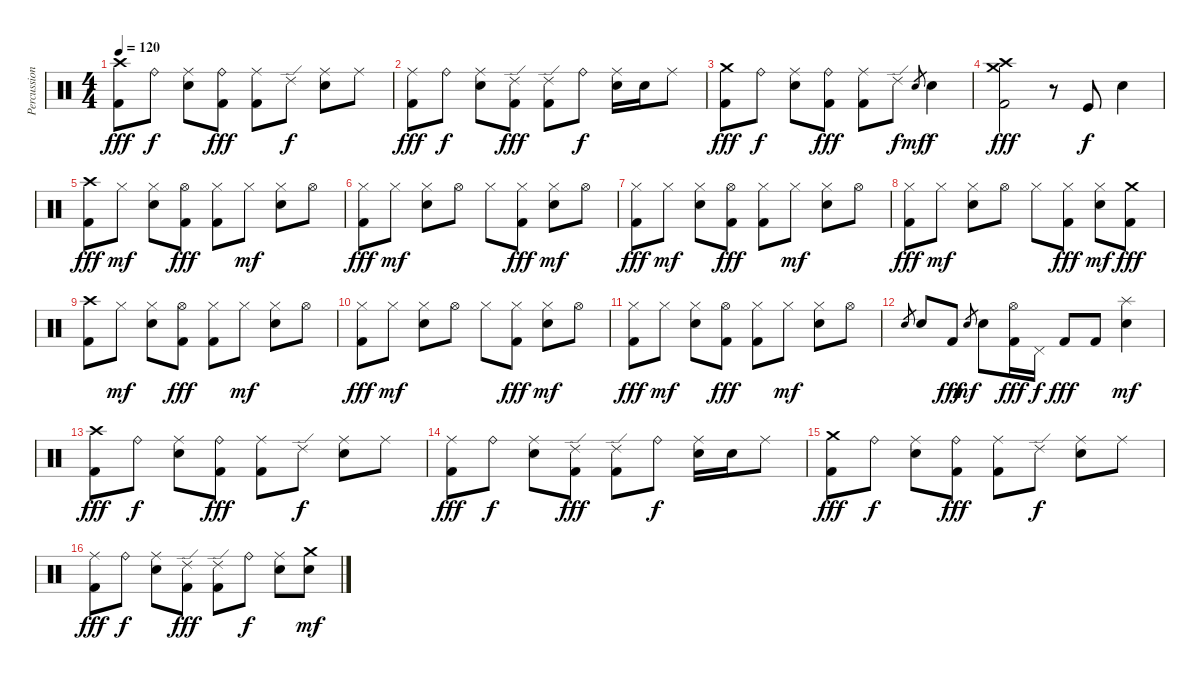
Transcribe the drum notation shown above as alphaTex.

\track ("Percussion" "Percussion") {instrument percussion}
\staff {score}
\articulation defaults
\ts (4 4)
\tempo 120
\clef neutral
\ks c
("Crash high (hit)" "Kick (hit) 2").8{dy fff} "Ride (bell)".8{dy f} ("Ride (middle)" "Electric Snare (hit)").8 ("Ride (bell)" "Kick (hit) 2").8{dy fff} ("Ride (middle)" "Kick (hit) 2").8 "Ride (edge) 2".8{dy f} ("Ride (middle)" "Electric Snare (hit)").8 "Ride (middle)".8 |
("Ride (middle)" "Kick (hit) 2").8{dy fff} "Ride (bell)".8{dy f} ("Ride (middle)" "Electric Snare (hit)").8 ("Ride (edge) 2" "Kick (hit) 2").8{dy fff} ("Ride (edge) 2" "Kick (hit) 2").8 "Ride (bell)".8{dy f} ("Ride (middle)" "Electric Snare (hit)").16 "Electric Snare (hit)".16 "Ride (middle)".8 |
("Crash medium (hit)" "Kick (hit) 2").8{dy fff} "Ride (bell)".8{dy f} ("Ride (middle)" "Electric Snare (hit)").8 ("Ride (bell)" "Kick (hit) 2").8{dy fff} ("Ride (middle)" "Kick (hit) 2").8 "Ride (edge) 2".8{dy f} "Electric Snare (hit)".8{gr dy mf} "Electric Snare (hit)".4{dy f} |
("Crash medium (hit)" "Crash high (hit)" "Kick (hit) 2").2{dy fff} r.8 "Kick (hit)".8{dy f} "Electric Snare (hit)".4 |
("Crash high (hit)" "Kick (hit) 2").8{dy fff} "Hi-Hat (closed)".8{dy mf} ("Hi-Hat (closed)" "Electric Snare (hit)").8 ("Hi-Hat (open)" "Kick (hit) 2").8{dy fff} ("Hi-Hat (closed)" "Kick (hit) 2").8 "Hi-Hat (closed)".8{dy mf} ("Hi-Hat (closed)" "Electric Snare (hit)").8 "Hi-Hat (open)".8 |
("Hi-Hat (closed)" "Kick (hit) 2").8{dy fff} "Hi-Hat (closed)".8{dy mf} ("Hi-Hat (closed)" "Electric Snare (hit)").8 "Hi-Hat (open)".8 "Hi-Hat (closed)".8 ("Hi-Hat (closed)" "Kick (hit) 2").8{dy fff} ("Hi-Hat (closed)" "Electric Snare (hit)").8{dy mf} "Hi-Hat (open)".8 |
("Hi-Hat (closed)" "Kick (hit) 2").8{dy fff} "Hi-Hat (closed)".8{dy mf} ("Hi-Hat (closed)" "Electric Snare (hit)").8 ("Hi-Hat (open)" "Kick (hit) 2").8{dy fff} ("Hi-Hat (closed)" "Kick (hit) 2").8 "Hi-Hat (closed)".8{dy mf} ("Hi-Hat (closed)" "Electric Snare (hit)").8 "Hi-Hat (open)".8 |
("Hi-Hat (closed)" "Kick (hit) 2").8{dy fff} "Hi-Hat (closed)".8{dy mf} ("Hi-Hat (closed)" "Electric Snare (hit)").8 "Hi-Hat (open)".8 "Hi-Hat (closed)".8 ("Hi-Hat (closed)" "Kick (hit) 2").8{dy fff} ("Hi-Hat (closed)" "Electric Snare (hit)").8{dy mf} ("Crash medium (hit)" "Kick (hit) 2").8{dy fff} |
("Crash high (hit)" "Kick (hit) 2").8 "Hi-Hat (closed)".8{dy mf} ("Hi-Hat (closed)" "Electric Snare (hit)").8 ("Hi-Hat (open)" "Kick (hit) 2").8{dy fff} ("Hi-Hat (closed)" "Kick (hit) 2").8 "Hi-Hat (closed)".8{dy mf} ("Hi-Hat (closed)" "Electric Snare (hit)").8 "Hi-Hat (open)".8 |
("Hi-Hat (closed)" "Kick (hit) 2").8{dy fff} "Hi-Hat (closed)".8{dy mf} ("Hi-Hat (closed)" "Electric Snare (hit)").8 "Hi-Hat (open)".8 "Hi-Hat (closed)".8 ("Hi-Hat (closed)" "Kick (hit) 2").8{dy fff} ("Hi-Hat (closed)" "Electric Snare (hit)").8{dy mf} "Hi-Hat (open)".8 |
("Hi-Hat (closed)" "Kick (hit) 2").8{dy fff} "Hi-Hat (closed)".8{dy mf} ("Hi-Hat (closed)" "Electric Snare (hit)").8 ("Hi-Hat (open)" "Kick (hit) 2").8{dy fff} ("Hi-Hat (closed)" "Kick (hit) 2").8 "Hi-Hat (closed)".8{dy mf} ("Hi-Hat (closed)" "Electric Snare (hit)").8 "Hi-Hat (open)".8 |
"Electric Snare (hit)".8{gr} "Electric Snare (hit)".8 "Kick (hit) 2".8{dy fff} "Electric Snare (hit)".8{gr dy mf} "Electric Snare (hit)".8 ("Hi-Hat (open)" "Kick (hit) 2").16{dy fff} "Pedal Hi-Hat (hit)".16{dy f} "Kick (hit) 2".8{dy fff} "Kick (hit) 2".8 ("Splash (hit)" "Electric Snare (hit)").4{dy mf} |
("Crash high (hit)" "Kick (hit) 2").8{dy fff} "Ride (bell)".8{dy f} ("Ride (middle)" "Electric Snare (hit)").8 ("Ride (bell)" "Kick (hit) 2").8{dy fff} ("Ride (middle)" "Kick (hit) 2").8 "Ride (edge) 2".8{dy f} ("Ride (middle)" "Electric Snare (hit)").8 "Ride (middle)".8 |
("Ride (middle)" "Kick (hit) 2").8{dy fff} "Ride (bell)".8{dy f} ("Ride (middle)" "Electric Snare (hit)").8 ("Ride (edge) 2" "Kick (hit) 2").8{dy fff} ("Ride (edge) 2" "Kick (hit) 2").8 "Ride (bell)".8{dy f} ("Ride (middle)" "Electric Snare (hit)").16 "Electric Snare (hit)".16 "Ride (middle)".8 |
("Crash medium (hit)" "Kick (hit) 2").8{dy fff} "Ride (bell)".8{dy f} ("Ride (middle)" "Electric Snare (hit)").8 ("Ride (bell)" "Kick (hit) 2").8{dy fff} ("Ride (middle)" "Kick (hit) 2").8 "Ride (edge) 2".8{dy f} ("Ride (middle)" "Electric Snare (hit)").8 "Ride (middle)".8 |
("Ride (middle)" "Kick (hit) 2").8{dy fff} "Ride (bell)".8{dy f} ("Ride (middle)" "Electric Snare (hit)").8 ("Ride (edge) 2" "Kick (hit) 2").8{dy fff} ("Ride (edge) 2" "Kick (hit) 2").8 "Ride (bell)".8{dy f} ("Ride (middle)" "Electric Snare (hit)").8 ("Crash medium (hit)" "Electric Snare (hit)").8{dy mf}
